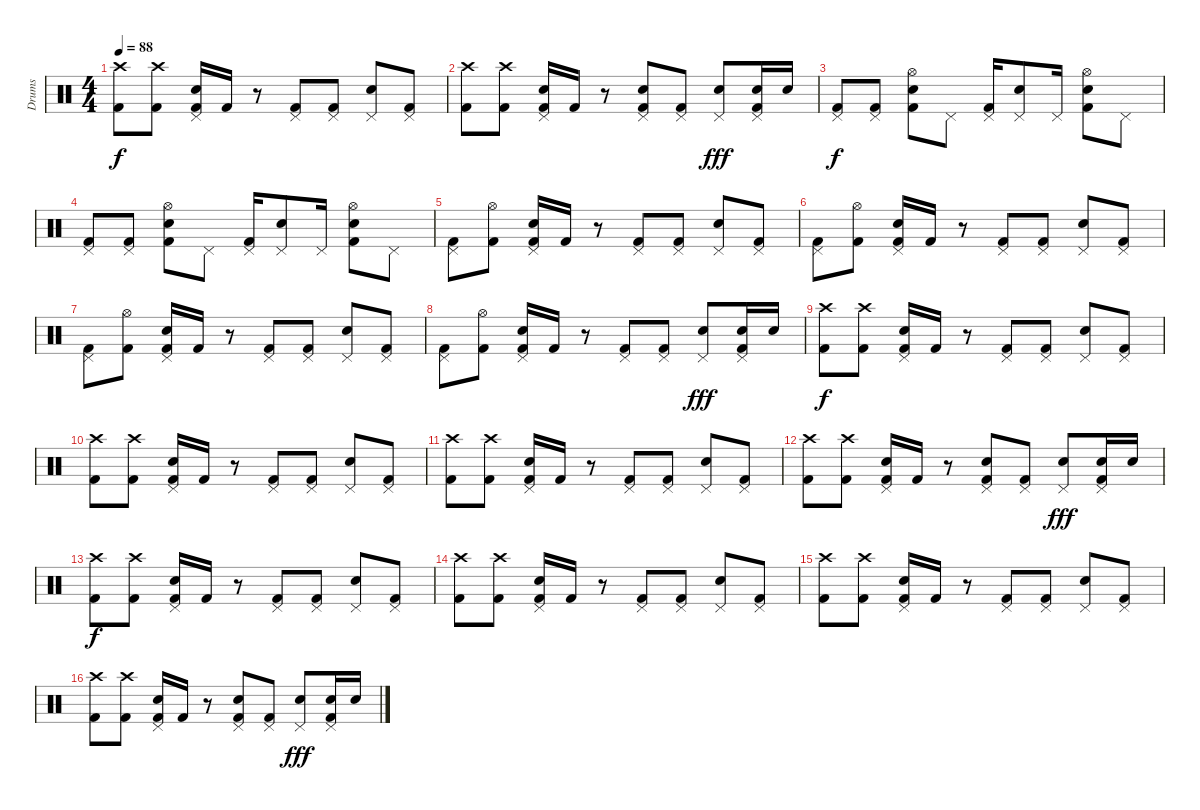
\track ("Drums" "Drums") {instrument percussion}
\staff {score}
\articulation defaults
\ts (4 4)
\tempo 88
\clef neutral
\ks c
("Crash high (hit)" "Kick (hit) 2").8{dy f} ("Crash high (hit)" "Kick (hit) 2").8 ("Pedal Hi-Hat (hit)" "Snare (hit) 2" "Kick (hit) 2").16 "Kick (hit) 2".16 r.8 ("Pedal Hi-Hat (hit)" "Kick (hit) 2").8 ("Pedal Hi-Hat (hit)" "Kick (hit) 2").8 ("Pedal Hi-Hat (hit)" "Snare (hit) 2").8 ("Pedal Hi-Hat (hit)" "Kick (hit) 2").8 |
("Crash high (hit)" "Kick (hit) 2").8 ("Crash high (hit)" "Kick (hit) 2").8 ("Pedal Hi-Hat (hit)" "Snare (hit) 2" "Kick (hit) 2").16 "Kick (hit) 2".16 r.8 ("Pedal Hi-Hat (hit)" "Snare (hit) 2" "Kick (hit) 2").8 ("Pedal Hi-Hat (hit)" "Kick (hit) 2").8 ("Pedal Hi-Hat (hit)" "Snare (hit) 2").8{dy fff} ("Pedal Hi-Hat (hit)" "Snare (hit) 2" "Kick (hit) 2").16 "Snare (hit) 2".16 |
("Pedal Hi-Hat (hit)" "Kick (hit) 2").8{dy f} ("Pedal Hi-Hat (hit)" "Kick (hit) 2").8 ("Hi-Hat (open)" "Snare (hit) 2" "Kick (hit) 2").8 "Pedal Hi-Hat (hit)".8 ("Pedal Hi-Hat (hit)" "Kick (hit) 2").16 ("Pedal Hi-Hat (hit)" "Snare (hit) 2").8 "Pedal Hi-Hat (hit)".16 ("Hi-Hat (open)" "Snare (hit) 2" "Kick (hit) 2").8 "Pedal Hi-Hat (hit)".8 |
("Pedal Hi-Hat (hit)" "Kick (hit) 2").8 ("Pedal Hi-Hat (hit)" "Kick (hit) 2").8 ("Hi-Hat (open)" "Snare (hit) 2" "Kick (hit) 2").8 "Pedal Hi-Hat (hit)".8 ("Pedal Hi-Hat (hit)" "Kick (hit) 2").16 ("Pedal Hi-Hat (hit)" "Snare (hit) 2").8 "Pedal Hi-Hat (hit)".16 ("Hi-Hat (open)" "Snare (hit) 2" "Kick (hit) 2").8 "Pedal Hi-Hat (hit)".8 |
("Pedal Hi-Hat (hit)" "Kick (hit) 2").8 ("Hi-Hat (open)" "Kick (hit) 2").8 ("Pedal Hi-Hat (hit)" "Snare (hit) 2" "Kick (hit) 2").16 "Kick (hit) 2".16 r.8 ("Pedal Hi-Hat (hit)" "Kick (hit) 2").8 ("Pedal Hi-Hat (hit)" "Kick (hit) 2").8 ("Pedal Hi-Hat (hit)" "Snare (hit) 2").8 ("Pedal Hi-Hat (hit)" "Kick (hit) 2").8 |
("Pedal Hi-Hat (hit)" "Kick (hit) 2").8 ("Hi-Hat (open)" "Kick (hit) 2").8 ("Pedal Hi-Hat (hit)" "Snare (hit) 2" "Kick (hit) 2").16 "Kick (hit) 2".16 r.8 ("Pedal Hi-Hat (hit)" "Kick (hit) 2").8 ("Pedal Hi-Hat (hit)" "Kick (hit) 2").8 ("Pedal Hi-Hat (hit)" "Snare (hit) 2").8 ("Pedal Hi-Hat (hit)" "Kick (hit) 2").8 |
("Pedal Hi-Hat (hit)" "Kick (hit) 2").8 ("Hi-Hat (open)" "Kick (hit) 2").8 ("Pedal Hi-Hat (hit)" "Snare (hit) 2" "Kick (hit) 2").16 "Kick (hit) 2".16 r.8 ("Pedal Hi-Hat (hit)" "Kick (hit) 2").8 ("Pedal Hi-Hat (hit)" "Kick (hit) 2").8 ("Pedal Hi-Hat (hit)" "Snare (hit) 2").8 ("Pedal Hi-Hat (hit)" "Kick (hit) 2").8 |
("Pedal Hi-Hat (hit)" "Kick (hit) 2").8 ("Hi-Hat (open)" "Kick (hit) 2").8 ("Pedal Hi-Hat (hit)" "Snare (hit) 2" "Kick (hit) 2").16 "Kick (hit) 2".16 r.8 ("Pedal Hi-Hat (hit)" "Kick (hit) 2").8 ("Pedal Hi-Hat (hit)" "Kick (hit) 2").8 ("Pedal Hi-Hat (hit)" "Snare (hit) 2").8{dy fff} ("Pedal Hi-Hat (hit)" "Snare (hit) 2" "Kick (hit) 2").16 "Snare (hit) 2".16 |
("Crash high (hit)" "Kick (hit) 2").8{dy f} ("Crash high (hit)" "Kick (hit) 2").8 ("Pedal Hi-Hat (hit)" "Snare (hit) 2" "Kick (hit) 2").16 "Kick (hit) 2".16 r.8 ("Pedal Hi-Hat (hit)" "Kick (hit) 2").8 ("Pedal Hi-Hat (hit)" "Kick (hit) 2").8 ("Pedal Hi-Hat (hit)" "Snare (hit) 2").8 ("Pedal Hi-Hat (hit)" "Kick (hit) 2").8 |
("Crash high (hit)" "Kick (hit) 2").8 ("Crash high (hit)" "Kick (hit) 2").8 ("Pedal Hi-Hat (hit)" "Snare (hit) 2" "Kick (hit) 2").16 "Kick (hit) 2".16 r.8 ("Pedal Hi-Hat (hit)" "Kick (hit) 2").8 ("Pedal Hi-Hat (hit)" "Kick (hit) 2").8 ("Pedal Hi-Hat (hit)" "Snare (hit) 2").8 ("Pedal Hi-Hat (hit)" "Kick (hit) 2").8 |
("Crash high (hit)" "Kick (hit) 2").8 ("Crash high (hit)" "Kick (hit) 2").8 ("Pedal Hi-Hat (hit)" "Snare (hit) 2" "Kick (hit) 2").16 "Kick (hit) 2".16 r.8 ("Pedal Hi-Hat (hit)" "Kick (hit) 2").8 ("Pedal Hi-Hat (hit)" "Kick (hit) 2").8 ("Pedal Hi-Hat (hit)" "Snare (hit) 2").8 ("Pedal Hi-Hat (hit)" "Kick (hit) 2").8 |
("Crash high (hit)" "Kick (hit) 2").8 ("Crash high (hit)" "Kick (hit) 2").8 ("Pedal Hi-Hat (hit)" "Snare (hit) 2" "Kick (hit) 2").16 "Kick (hit) 2".16 r.8 ("Pedal Hi-Hat (hit)" "Snare (hit) 2" "Kick (hit) 2").8 ("Pedal Hi-Hat (hit)" "Kick (hit) 2").8 ("Pedal Hi-Hat (hit)" "Snare (hit) 2").8{dy fff} ("Pedal Hi-Hat (hit)" "Snare (hit) 2" "Kick (hit) 2").16 "Snare (hit) 2".16 |
("Crash high (hit)" "Kick (hit) 2").8{dy f} ("Crash high (hit)" "Kick (hit) 2").8 ("Pedal Hi-Hat (hit)" "Snare (hit) 2" "Kick (hit) 2").16 "Kick (hit) 2".16 r.8 ("Pedal Hi-Hat (hit)" "Kick (hit) 2").8 ("Pedal Hi-Hat (hit)" "Kick (hit) 2").8 ("Pedal Hi-Hat (hit)" "Snare (hit) 2").8 ("Pedal Hi-Hat (hit)" "Kick (hit) 2").8 |
("Crash high (hit)" "Kick (hit) 2").8 ("Crash high (hit)" "Kick (hit) 2").8 ("Pedal Hi-Hat (hit)" "Snare (hit) 2" "Kick (hit) 2").16 "Kick (hit) 2".16 r.8 ("Pedal Hi-Hat (hit)" "Kick (hit) 2").8 ("Pedal Hi-Hat (hit)" "Kick (hit) 2").8 ("Pedal Hi-Hat (hit)" "Snare (hit) 2").8 ("Pedal Hi-Hat (hit)" "Kick (hit) 2").8 |
("Crash high (hit)" "Kick (hit) 2").8 ("Crash high (hit)" "Kick (hit) 2").8 ("Pedal Hi-Hat (hit)" "Snare (hit) 2" "Kick (hit) 2").16 "Kick (hit) 2".16 r.8 ("Pedal Hi-Hat (hit)" "Kick (hit) 2").8 ("Pedal Hi-Hat (hit)" "Kick (hit) 2").8 ("Pedal Hi-Hat (hit)" "Snare (hit) 2").8 ("Pedal Hi-Hat (hit)" "Kick (hit) 2").8 |
("Crash high (hit)" "Kick (hit) 2").8 ("Crash high (hit)" "Kick (hit) 2").8 ("Pedal Hi-Hat (hit)" "Snare (hit) 2" "Kick (hit) 2").16 "Kick (hit) 2".16 r.8 ("Pedal Hi-Hat (hit)" "Snare (hit) 2" "Kick (hit) 2").8 ("Pedal Hi-Hat (hit)" "Kick (hit) 2").8 ("Pedal Hi-Hat (hit)" "Snare (hit) 2").8{dy fff} ("Pedal Hi-Hat (hit)" "Snare (hit) 2" "Kick (hit) 2").16 "Snare (hit) 2".16
